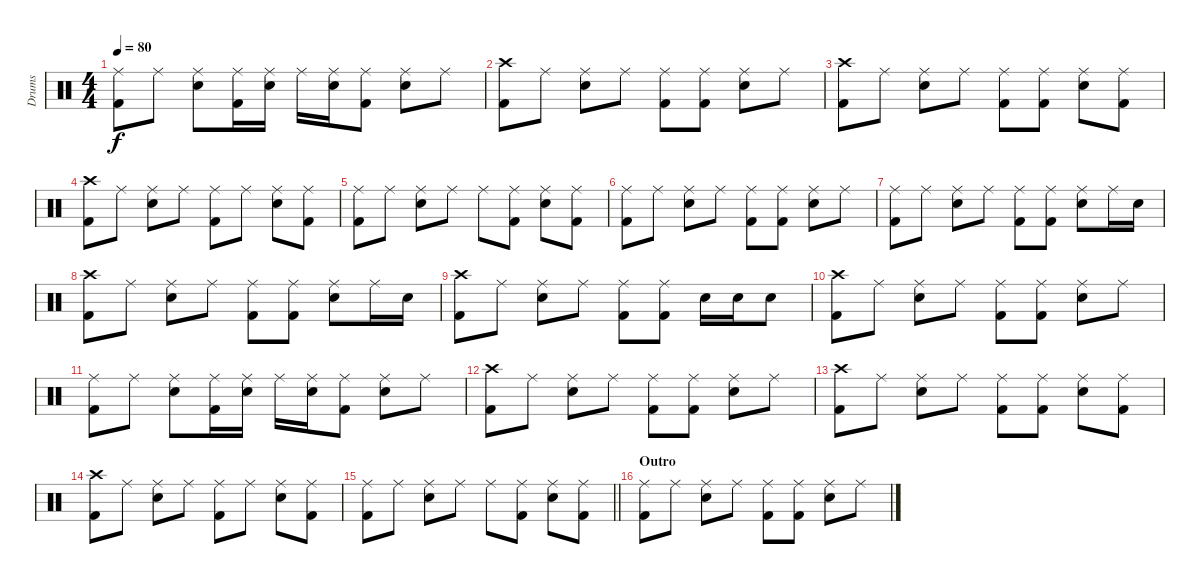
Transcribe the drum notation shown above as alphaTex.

\track ("Drums" "Drums") {instrument percussion}
\staff {score}
\articulation defaults
\ts (4 4)
\tempo 80
\clef neutral
\ks c
("Ride (middle)" "Kick (hit) 2").8{dy f} "Ride (middle)".8 ("Ride (middle)" "Electric Snare (hit)").8 ("Ride (middle)" "Kick (hit) 2").16 ("Ride (middle)" "Electric Snare (hit)").16 "Ride (middle)".16 ("Ride (middle)" "Electric Snare (hit)").16 ("Ride (middle)" "Kick (hit) 2").8 ("Ride (middle)" "Electric Snare (hit)").8 "Ride (middle)".8 |
("Crash high (hit)" "Kick (hit) 2").8 "Ride (middle)".8 ("Ride (middle)" "Electric Snare (hit)").8 "Ride (middle)".8 ("Ride (middle)" "Kick (hit) 2").8 ("Ride (middle)" "Kick (hit) 2").8 ("Ride (middle)" "Electric Snare (hit)").8 "Ride (middle)".8 |
("Crash high (hit)" "Kick (hit) 2").8 "Ride (middle)".8 ("Ride (middle)" "Electric Snare (hit)").8 "Ride (middle)".8 ("Ride (middle)" "Kick (hit) 2").8 ("Ride (middle)" "Kick (hit) 2").8 ("Ride (middle)" "Electric Snare (hit)").8 ("Ride (middle)" "Kick (hit) 2").8 |
("Crash high (hit)" "Kick (hit) 2").8 "Ride (middle)".8 ("Ride (middle)" "Electric Snare (hit)").8 "Ride (middle)".8 ("Ride (middle)" "Kick (hit) 2").8 "Ride (middle)".8 ("Ride (middle)" "Electric Snare (hit)").8 ("Ride (middle)" "Kick (hit) 2").8 |
("Ride (middle)" "Kick (hit) 2").8 "Ride (middle)".8 ("Ride (middle)" "Electric Snare (hit)").8 "Ride (middle)".8 "Ride (middle)".8 ("Ride (middle)" "Kick (hit) 2").8 ("Ride (middle)" "Electric Snare (hit)").8 ("Ride (middle)" "Kick (hit) 2").8 |
("Ride (middle)" "Kick (hit) 2").8 "Ride (middle)".8 ("Ride (middle)" "Electric Snare (hit)").8 "Ride (middle)".8 ("Ride (middle)" "Kick (hit) 2").8 ("Ride (middle)" "Kick (hit) 2").8 ("Ride (middle)" "Electric Snare (hit)").8 "Ride (middle)".8 |
("Ride (middle)" "Kick (hit) 2").8 "Ride (middle)".8 ("Ride (middle)" "Electric Snare (hit)").8 "Ride (middle)".8 ("Ride (middle)" "Kick (hit) 2").8 ("Ride (middle)" "Kick (hit) 2").8 ("Ride (middle)" "Electric Snare (hit)").8 "Ride (middle)".16 "Electric Snare (hit)".16 |
("Crash high (hit)" "Kick (hit) 2").8 "Ride (middle)".8 ("Ride (middle)" "Electric Snare (hit)").8 "Ride (middle)".8 ("Ride (middle)" "Kick (hit) 2").8 ("Ride (middle)" "Kick (hit) 2").8 ("Ride (middle)" "Electric Snare (hit)").8 "Ride (middle)".16 "Electric Snare (hit)".16 |
("Crash high (hit)" "Kick (hit) 2").8 "Ride (middle)".8 ("Ride (middle)" "Electric Snare (hit)").8 "Ride (middle)".8 ("Ride (middle)" "Kick (hit) 2").8 ("Ride (middle)" "Kick (hit) 2").8 "Electric Snare (hit)".16 "Electric Snare (hit)".16 "Electric Snare (hit)".8 |
("Crash high (hit)" "Kick (hit) 2").8 "Ride (middle)".8 ("Ride (middle)" "Electric Snare (hit)").8 "Ride (middle)".8 ("Ride (middle)" "Kick (hit) 2").8 ("Ride (middle)" "Kick (hit) 2").8 ("Ride (middle)" "Electric Snare (hit)").8 "Ride (middle)".8 |
("Ride (middle)" "Kick (hit) 2").8 "Ride (middle)".8 ("Ride (middle)" "Electric Snare (hit)").8 ("Ride (middle)" "Kick (hit) 2").16 ("Ride (middle)" "Electric Snare (hit)").16 "Ride (middle)".16 ("Ride (middle)" "Electric Snare (hit)").16 ("Ride (middle)" "Kick (hit) 2").8 ("Ride (middle)" "Electric Snare (hit)").8 "Ride (middle)".8 |
("Crash high (hit)" "Kick (hit) 2").8 "Ride (middle)".8 ("Ride (middle)" "Electric Snare (hit)").8 "Ride (middle)".8 ("Ride (middle)" "Kick (hit) 2").8 ("Ride (middle)" "Kick (hit) 2").8 ("Ride (middle)" "Electric Snare (hit)").8 "Ride (middle)".8 |
("Crash high (hit)" "Kick (hit) 2").8 "Ride (middle)".8 ("Ride (middle)" "Electric Snare (hit)").8 "Ride (middle)".8 ("Ride (middle)" "Kick (hit) 2").8 ("Ride (middle)" "Kick (hit) 2").8 ("Ride (middle)" "Electric Snare (hit)").8 ("Ride (middle)" "Kick (hit) 2").8 |
("Crash high (hit)" "Kick (hit) 2").8 "Ride (middle)".8 ("Ride (middle)" "Electric Snare (hit)").8 "Ride (middle)".8 ("Ride (middle)" "Kick (hit) 2").8 "Ride (middle)".8 ("Ride (middle)" "Electric Snare (hit)").8 ("Ride (middle)" "Kick (hit) 2").8 |
\barLineRight lightlight
("Ride (middle)" "Kick (hit) 2").8 "Ride (middle)".8 ("Ride (middle)" "Electric Snare (hit)").8 "Ride (middle)".8 "Ride (middle)".8 ("Ride (middle)" "Kick (hit) 2").8 ("Ride (middle)" "Electric Snare (hit)").8 ("Ride (middle)" "Kick (hit) 2").8 |
\section ("" "Outro")
("Ride (middle)" "Kick (hit) 2").8 "Ride (middle)".8 ("Ride (middle)" "Electric Snare (hit)").8 "Ride (middle)".8 ("Ride (middle)" "Kick (hit) 2").8 ("Ride (middle)" "Kick (hit) 2").8 ("Ride (middle)" "Electric Snare (hit)").8 "Ride (middle)".8
